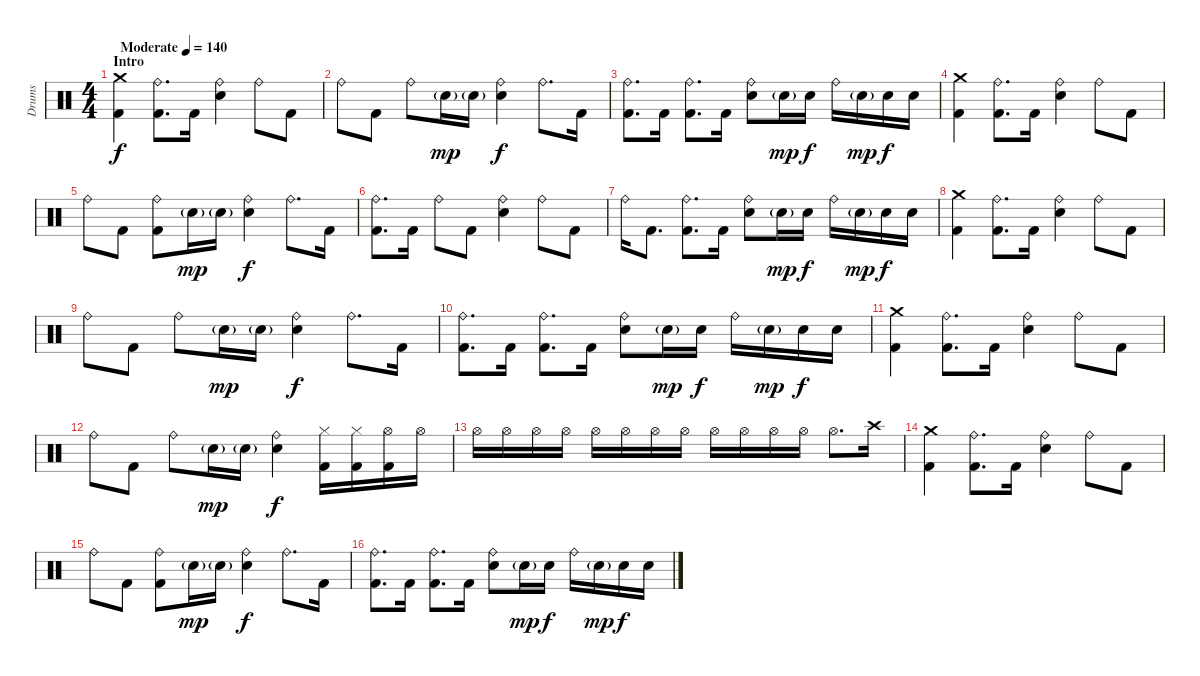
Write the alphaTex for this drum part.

\track ("Drums" "Drums") {instrument percussion}
\staff {score}
\articulation defaults
\ts (4 4)
\section ("" "Intro")
\tempo (140 "Moderate")
\clef neutral
\ks c
("Crash medium (hit)" "Kick (hit) 2").4{dy f} ("Ride (bell)" "Kick (hit) 2").8{d} "Kick (hit) 2".16 ("Ride (bell)" "Electric Snare (hit)").4 "Ride (bell)".8 "Kick (hit) 2".8 |
"Ride (bell)".8 "Kick (hit) 2".8 "Ride (bell)".8 "Electric Snare (hit)"{g}.16{dy mp} "Electric Snare (hit)"{g}.16 ("Ride (bell)" "Electric Snare (hit)").4{dy f} "Ride (bell)".8{d} "Kick (hit) 2".16 |
("Ride (bell)" "Kick (hit) 2").8{d} "Kick (hit) 2".16 ("Ride (bell)" "Kick (hit) 2").8{d} "Kick (hit) 2".16 ("Ride (bell)" "Electric Snare (hit)").8 "Electric Snare (hit)"{g}.16{dy mp} "Electric Snare (hit)".16{dy f} "Ride (bell)".16 "Electric Snare (hit)"{g}.16{dy mp} "Electric Snare (hit)".16{dy f} "Electric Snare (hit)".16 |
("Crash medium (hit)" "Kick (hit) 2").4 ("Ride (bell)" "Kick (hit) 2").8{d} "Kick (hit) 2".16 ("Ride (bell)" "Electric Snare (hit)").4 "Ride (bell)".8 "Kick (hit) 2".8 |
"Ride (bell)".8 "Kick (hit) 2".8 ("Ride (bell)" "Kick (hit) 2").8 "Electric Snare (hit)"{g}.16{dy mp} "Electric Snare (hit)"{g}.16 ("Ride (bell)" "Electric Snare (hit)").4{dy f} "Ride (bell)".8{d} "Kick (hit) 2".16 |
("Ride (bell)" "Kick (hit) 2").8{d} "Kick (hit) 2".16 "Ride (bell)".8 "Kick (hit) 2".8 ("Ride (bell)" "Electric Snare (hit)").4 "Ride (bell)".8 "Kick (hit) 2".8 |
"Ride (bell)".16 "Kick (hit) 2".8{d} ("Ride (bell)" "Kick (hit) 2").8{d} "Kick (hit) 2".16 ("Ride (bell)" "Electric Snare (hit)").8 "Electric Snare (hit)"{g}.16{dy mp} "Electric Snare (hit)".16{dy f} "Ride (bell)".16 "Electric Snare (hit)"{g}.16{dy mp} "Electric Snare (hit)".16{dy f} "Electric Snare (hit)".16 |
("Crash medium (hit)" "Kick (hit) 2").4 ("Ride (bell)" "Kick (hit) 2").8{d} "Kick (hit) 2".16 ("Ride (bell)" "Electric Snare (hit)").4 "Ride (bell)".8 "Kick (hit) 2".8 |
"Ride (bell)".8 "Kick (hit) 2".8 "Ride (bell)".8 "Electric Snare (hit)"{g}.16{dy mp} "Electric Snare (hit)"{g}.16 ("Ride (bell)" "Electric Snare (hit)").4{dy f} "Ride (bell)".8{d} "Kick (hit) 2".16 |
("Ride (bell)" "Kick (hit) 2").8{d} "Kick (hit) 2".16 ("Ride (bell)" "Kick (hit) 2").8{d} "Kick (hit) 2".16 ("Ride (bell)" "Electric Snare (hit)").8 "Electric Snare (hit)"{g}.16{dy mp} "Electric Snare (hit)".16{dy f} "Ride (bell)".16 "Electric Snare (hit)"{g}.16{dy mp} "Electric Snare (hit)".16{dy f} "Electric Snare (hit)".16 |
("Crash medium (hit)" "Kick (hit) 2").4 ("Ride (bell)" "Kick (hit) 2").8{d} "Kick (hit) 2".16 ("Ride (bell)" "Electric Snare (hit)").4 "Ride (bell)".8 "Kick (hit) 2".8 |
"Ride (bell)".8 "Kick (hit) 2".8 "Ride (bell)".8 "Electric Snare (hit)"{g}.16{dy mp} "Electric Snare (hit)"{g}.16 ("Ride (bell)" "Electric Snare (hit)").4{dy f} ("Hi-Hat (closed)" "Kick (hit) 2").16 ("Hi-Hat (closed)" "Kick (hit) 2").16 ("Hi-Hat (open)" "Kick (hit) 2").16 "Hi-Hat (open)".16 |
"Hi-Hat (open)".16 "Hi-Hat (open)".16 "Hi-Hat (open)".16 "Hi-Hat (open)".16 "Hi-Hat (open)".16 "Hi-Hat (open)".16 "Hi-Hat (open)".16 "Hi-Hat (open)".16 "Hi-Hat (open)".16 "Hi-Hat (open)".16 "Hi-Hat (open)".16 "Hi-Hat (open)".16 "Hi-Hat (open)".8{d} "Crash high (hit)".16 |
("Crash medium (hit)" "Kick (hit) 2").4 ("Ride (bell)" "Kick (hit) 2").8{d} "Kick (hit) 2".16 ("Ride (bell)" "Electric Snare (hit)").4 "Ride (bell)".8 "Kick (hit) 2".8 |
"Ride (bell)".8 "Kick (hit) 2".8 ("Ride (bell)" "Kick (hit) 2").8 "Electric Snare (hit)"{g}.16{dy mp} "Electric Snare (hit)"{g}.16 ("Ride (bell)" "Electric Snare (hit)").4{dy f} "Ride (bell)".8{d} "Kick (hit) 2".16 |
("Ride (bell)" "Kick (hit) 2").8{d} "Kick (hit) 2".16 ("Ride (bell)" "Kick (hit) 2").8{d} "Kick (hit) 2".16 ("Ride (bell)" "Electric Snare (hit)").8 "Electric Snare (hit)"{g}.16{dy mp} "Electric Snare (hit)".16{dy f} "Ride (bell)".16 "Electric Snare (hit)"{g}.16{dy mp} "Electric Snare (hit)".16{dy f} "Electric Snare (hit)".16
